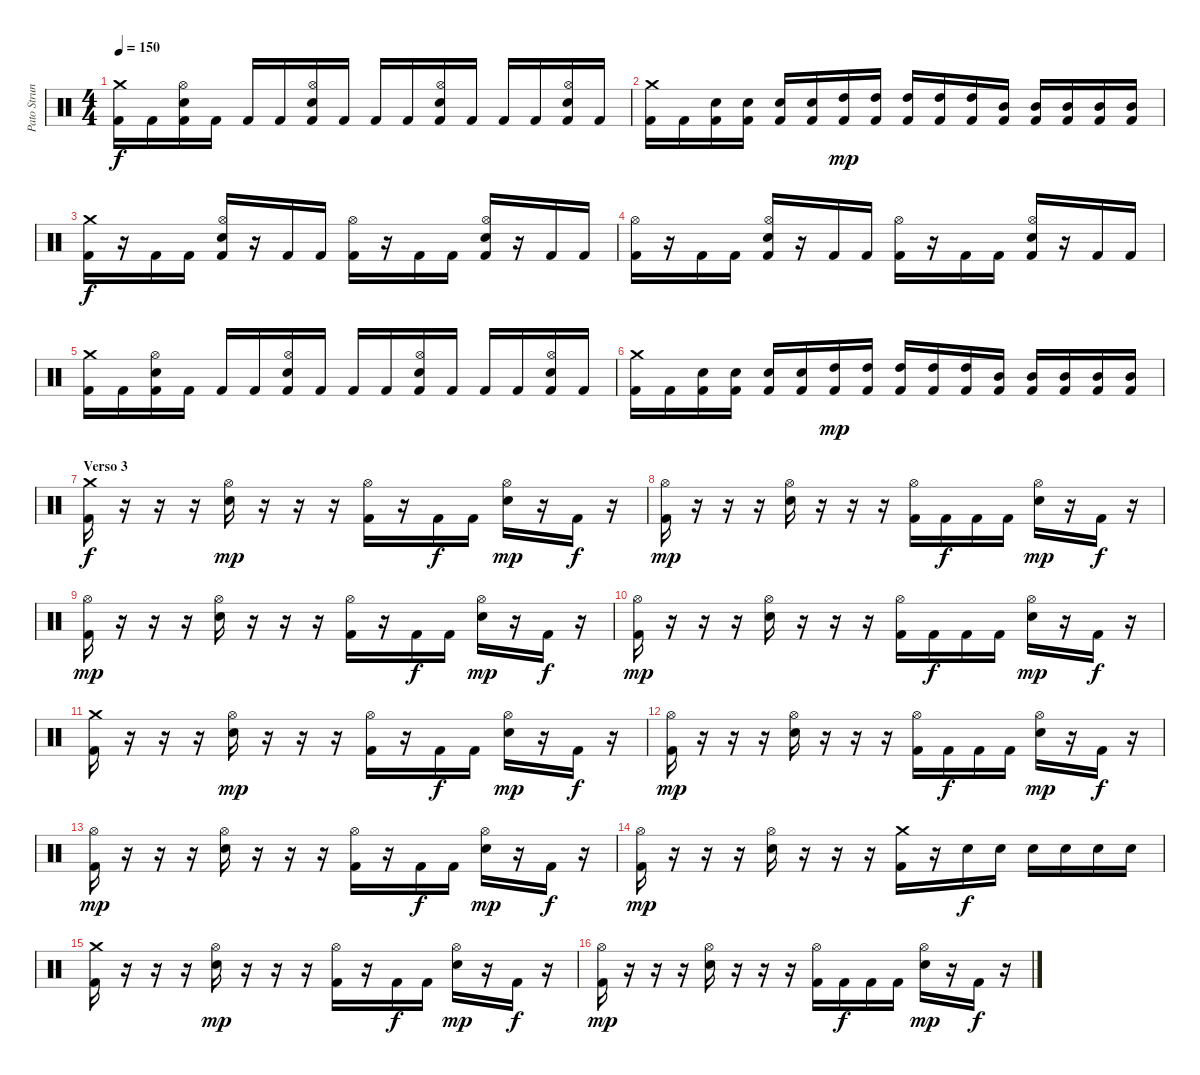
\track ("Pato Strunz" "Pato Strun") {instrument percussion}
\staff {score}
\articulation defaults
\ts (4 4)
\tempo 150
\clef neutral
\ks c
("Crash medium (hit)" "Kick (hit) 2").16{dy f} "Kick (hit) 2".16 ("Hi-Hat (open)" "Electric Snare (hit)" "Kick (hit) 2").16 "Kick (hit) 2".16 "Kick (hit) 2".16 "Kick (hit) 2".16 ("Hi-Hat (open)" "Electric Snare (hit)" "Kick (hit) 2").16 "Kick (hit) 2".16 "Kick (hit) 2".16 "Kick (hit) 2".16 ("Hi-Hat (open)" "Electric Snare (hit)" "Kick (hit) 2").16 "Kick (hit) 2".16 "Kick (hit) 2".16 "Kick (hit) 2".16 ("Hi-Hat (open)" "Electric Snare (hit)" "Kick (hit) 2").16 "Kick (hit) 2".16 |
("Crash medium (hit)" "Kick (hit) 2").16 "Kick (hit) 2".16 ("Electric Snare (hit)" "Kick (hit) 2").16 ("Electric Snare (hit)" "Kick (hit) 2").16 ("Electric Snare (hit)" "Kick (hit) 2").16 ("Electric Snare (hit)" "Kick (hit) 2").16 ("High Tom (hit)" "Kick (hit) 2").16{dy mp} ("High Tom (hit)" "Kick (hit) 2").16 ("High Tom (hit)" "Kick (hit) 2").16 ("High Tom (hit)" "Kick (hit) 2").16 ("High Tom (hit)" "Kick (hit) 2").16 ("Mid Tom (hit)" "Kick (hit) 2").16 ("Mid Tom (hit)" "Kick (hit) 2").16 ("Mid Tom (hit)" "Kick (hit) 2").16 ("Mid Tom (hit)" "Kick (hit) 2").16 ("Mid Tom (hit)" "Kick (hit) 2").16 |
("Crash medium (hit)" "Kick (hit) 2").16{dy f} r.16 "Kick (hit) 2".16 "Kick (hit) 2".16 ("Hi-Hat (open)" "Electric Snare (hit)" "Kick (hit) 2").16 r.16 "Kick (hit) 2".16 "Kick (hit) 2".16 ("Hi-Hat (open)" "Kick (hit) 2").16 r.16 "Kick (hit) 2".16 "Kick (hit) 2".16 ("Hi-Hat (open)" "Electric Snare (hit)" "Kick (hit) 2").16 r.16 "Kick (hit) 2".16 "Kick (hit) 2".16 |
("Hi-Hat (open)" "Kick (hit) 2").16 r.16 "Kick (hit) 2".16 "Kick (hit) 2".16 ("Hi-Hat (open)" "Electric Snare (hit)" "Kick (hit) 2").16 r.16 "Kick (hit) 2".16 "Kick (hit) 2".16 ("Hi-Hat (open)" "Kick (hit) 2").16 r.16 "Kick (hit) 2".16 "Kick (hit) 2".16 ("Hi-Hat (open)" "Electric Snare (hit)" "Kick (hit) 2").16 r.16 "Kick (hit) 2".16 "Kick (hit) 2".16 |
("Crash medium (hit)" "Kick (hit) 2").16 "Kick (hit) 2".16 ("Hi-Hat (open)" "Electric Snare (hit)" "Kick (hit) 2").16 "Kick (hit) 2".16 "Kick (hit) 2".16 "Kick (hit) 2".16 ("Hi-Hat (open)" "Electric Snare (hit)" "Kick (hit) 2").16 "Kick (hit) 2".16 "Kick (hit) 2".16 "Kick (hit) 2".16 ("Hi-Hat (open)" "Electric Snare (hit)" "Kick (hit) 2").16 "Kick (hit) 2".16 "Kick (hit) 2".16 "Kick (hit) 2".16 ("Hi-Hat (open)" "Electric Snare (hit)" "Kick (hit) 2").16 "Kick (hit) 2".16 |
("Crash medium (hit)" "Kick (hit) 2").16 "Kick (hit) 2".16 ("Electric Snare (hit)" "Kick (hit) 2").16 ("Electric Snare (hit)" "Kick (hit) 2").16 ("Electric Snare (hit)" "Kick (hit) 2").16 ("Electric Snare (hit)" "Kick (hit) 2").16 ("High Tom (hit)" "Kick (hit) 2").16{dy mp} ("High Tom (hit)" "Kick (hit) 2").16 ("High Tom (hit)" "Kick (hit) 2").16 ("High Tom (hit)" "Kick (hit) 2").16 ("High Tom (hit)" "Kick (hit) 2").16 ("Mid Tom (hit)" "Kick (hit) 2").16 ("Mid Tom (hit)" "Kick (hit) 2").16 ("Mid Tom (hit)" "Kick (hit) 2").16 ("Mid Tom (hit)" "Kick (hit) 2").16 ("Mid Tom (hit)" "Kick (hit) 2").16 |
\section ("" "Verso 3")
("Crash medium (hit)" "Kick (hit) 2").16{dy f} r.16 r.16 r.16 ("Hi-Hat (open)" "Electric Snare (hit)").16{dy mp} r.16 r.16 r.16 ("Hi-Hat (open)" "Kick (hit) 2").16 r.16 "Kick (hit) 2".16{dy f} "Kick (hit) 2".16 ("Hi-Hat (open)" "Electric Snare (hit)").16{dy mp} r.16 "Kick (hit) 2".16{dy f} r.16 |
("Hi-Hat (open)" "Kick (hit) 2").16{dy mp} r.16 r.16 r.16 ("Hi-Hat (open)" "Electric Snare (hit)").16 r.16 r.16 r.16 ("Hi-Hat (open)" "Kick (hit) 2").16 "Kick (hit) 2".16{dy f} "Kick (hit) 2".16 "Kick (hit) 2".16 ("Hi-Hat (open)" "Electric Snare (hit)").16{dy mp} r.16 "Kick (hit) 2".16{dy f} r.16 |
("Hi-Hat (open)" "Kick (hit) 2").16{dy mp} r.16 r.16 r.16 ("Hi-Hat (open)" "Electric Snare (hit)").16 r.16 r.16 r.16 ("Hi-Hat (open)" "Kick (hit) 2").16 r.16 "Kick (hit) 2".16{dy f} "Kick (hit) 2".16 ("Hi-Hat (open)" "Electric Snare (hit)").16{dy mp} r.16 "Kick (hit) 2".16{dy f} r.16 |
("Hi-Hat (open)" "Kick (hit) 2").16{dy mp} r.16 r.16 r.16 ("Hi-Hat (open)" "Electric Snare (hit)").16 r.16 r.16 r.16 ("Hi-Hat (open)" "Kick (hit) 2").16 "Kick (hit) 2".16{dy f} "Kick (hit) 2".16 "Kick (hit) 2".16 ("Hi-Hat (open)" "Electric Snare (hit)").16{dy mp} r.16 "Kick (hit) 2".16{dy f} r.16 |
("Crash medium (hit)" "Kick (hit) 2").16 r.16 r.16 r.16 ("Hi-Hat (open)" "Electric Snare (hit)").16{dy mp} r.16 r.16 r.16 ("Hi-Hat (open)" "Kick (hit) 2").16 r.16 "Kick (hit) 2".16{dy f} "Kick (hit) 2".16 ("Hi-Hat (open)" "Electric Snare (hit)").16{dy mp} r.16 "Kick (hit) 2".16{dy f} r.16 |
("Hi-Hat (open)" "Kick (hit) 2").16{dy mp} r.16 r.16 r.16 ("Hi-Hat (open)" "Electric Snare (hit)").16 r.16 r.16 r.16 ("Hi-Hat (open)" "Kick (hit) 2").16 "Kick (hit) 2".16{dy f} "Kick (hit) 2".16 "Kick (hit) 2".16 ("Hi-Hat (open)" "Electric Snare (hit)").16{dy mp} r.16 "Kick (hit) 2".16{dy f} r.16 |
("Hi-Hat (open)" "Kick (hit) 2").16{dy mp} r.16 r.16 r.16 ("Hi-Hat (open)" "Electric Snare (hit)").16 r.16 r.16 r.16 ("Hi-Hat (open)" "Kick (hit) 2").16 r.16 "Kick (hit) 2".16{dy f} "Kick (hit) 2".16 ("Hi-Hat (open)" "Electric Snare (hit)").16{dy mp} r.16 "Kick (hit) 2".16{dy f} r.16 |
("Hi-Hat (open)" "Kick (hit) 2").16{dy mp} r.16 r.16 r.16 ("Hi-Hat (open)" "Electric Snare (hit)").16 r.16 r.16 r.16 ("Crash medium (hit)" "Kick (hit) 2").16 r.16 "Electric Snare (hit)".16{dy f} "Electric Snare (hit)".16 "Electric Snare (hit)".16 "Electric Snare (hit)".16 "Electric Snare (hit)".16 "Electric Snare (hit)".16 |
("Crash medium (hit)" "Kick (hit) 2").16 r.16 r.16 r.16 ("Hi-Hat (open)" "Electric Snare (hit)").16{dy mp} r.16 r.16 r.16 ("Hi-Hat (open)" "Kick (hit) 2").16 r.16 "Kick (hit) 2".16{dy f} "Kick (hit) 2".16 ("Hi-Hat (open)" "Electric Snare (hit)").16{dy mp} r.16 "Kick (hit) 2".16{dy f} r.16 |
("Hi-Hat (open)" "Kick (hit) 2").16{dy mp} r.16 r.16 r.16 ("Hi-Hat (open)" "Electric Snare (hit)").16 r.16 r.16 r.16 ("Hi-Hat (open)" "Kick (hit) 2").16 "Kick (hit) 2".16{dy f} "Kick (hit) 2".16 "Kick (hit) 2".16 ("Hi-Hat (open)" "Electric Snare (hit)").16{dy mp} r.16 "Kick (hit) 2".16{dy f} r.16
